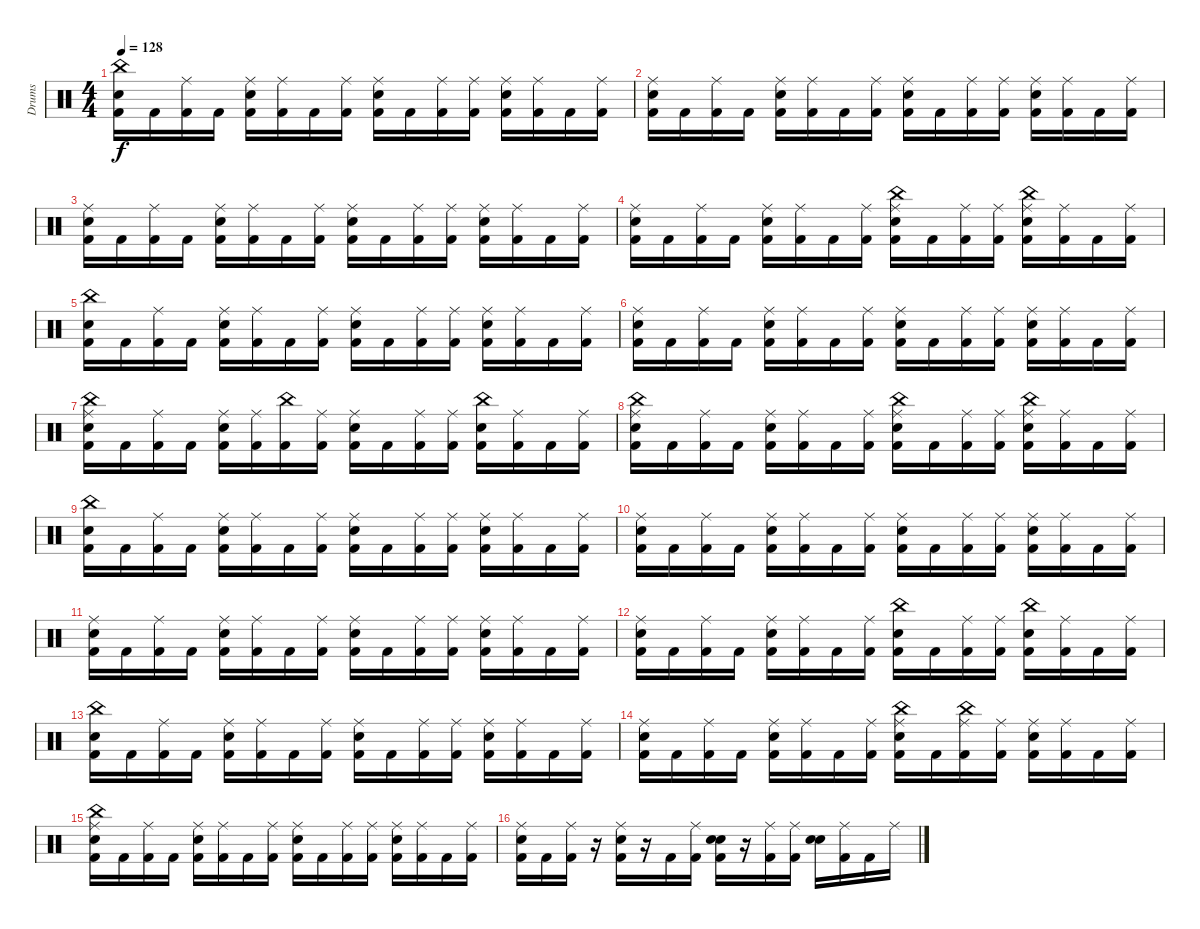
\track ("Drums" "Drums") {instrument percussion}
\staff {score}
\articulation defaults
\ts (4 4)
\tempo 128
\clef neutral
\ks c
("China (hit)" "Snare (hit) 2" "Kick (hit) 2").16{dy f} "Kick (hit) 2".16 ("Ride (middle)" "Kick (hit) 2").16 "Kick (hit) 2".16 ("Snare (hit) 2" "Ride (middle)" "Kick (hit) 2").16 ("Ride (middle)" "Kick (hit) 2").16 "Kick (hit) 2".16 ("Ride (middle)" "Kick (hit) 2").16 ("Snare (hit) 2" "Ride (middle)" "Kick (hit) 2").16 "Kick (hit) 2".16 ("Ride (middle)" "Kick (hit) 2").16 ("Ride (middle)" "Kick (hit) 2").16 ("Snare (hit) 2" "Ride (middle)" "Kick (hit) 2").16 ("Ride (middle)" "Kick (hit) 2").16 "Kick (hit) 2".16 ("Ride (middle)" "Kick (hit) 2").16 |
("Snare (hit) 2" "Ride (middle)" "Kick (hit) 2").16 "Kick (hit) 2".16 ("Ride (middle)" "Kick (hit) 2").16 "Kick (hit) 2".16 ("Snare (hit) 2" "Ride (middle)" "Kick (hit) 2").16 ("Ride (middle)" "Kick (hit) 2").16 "Kick (hit) 2".16 ("Ride (middle)" "Kick (hit) 2").16 ("Snare (hit) 2" "Ride (middle)" "Kick (hit) 2").16 "Kick (hit) 2".16 ("Ride (middle)" "Kick (hit) 2").16 ("Ride (middle)" "Kick (hit) 2").16 ("Snare (hit) 2" "Ride (middle)" "Kick (hit) 2").16 ("Ride (middle)" "Kick (hit) 2").16 "Kick (hit) 2".16 ("Ride (middle)" "Kick (hit) 2").16 |
("Snare (hit) 2" "Ride (middle)" "Kick (hit) 2").16 "Kick (hit) 2".16 ("Ride (middle)" "Kick (hit) 2").16 "Kick (hit) 2".16 ("Snare (hit) 2" "Ride (middle)" "Kick (hit) 2").16 ("Ride (middle)" "Kick (hit) 2").16 "Kick (hit) 2".16 ("Ride (middle)" "Kick (hit) 2").16 ("Snare (hit) 2" "Ride (middle)" "Kick (hit) 2").16 "Kick (hit) 2".16 ("Ride (middle)" "Kick (hit) 2").16 ("Ride (middle)" "Kick (hit) 2").16 ("Snare (hit) 2" "Ride (middle)" "Kick (hit) 2").16 ("Ride (middle)" "Kick (hit) 2").16 "Kick (hit) 2".16 ("Ride (middle)" "Kick (hit) 2").16 |
("Snare (hit) 2" "Ride (middle)" "Kick (hit) 2").16 "Kick (hit) 2".16 ("Ride (middle)" "Kick (hit) 2").16 "Kick (hit) 2".16 ("Snare (hit) 2" "Ride (middle)" "Kick (hit) 2").16 ("Ride (middle)" "Kick (hit) 2").16 "Kick (hit) 2".16 ("Ride (middle)" "Kick (hit) 2").16 ("China (hit)" "Snare (hit) 2" "Ride (middle)" "Kick (hit) 2").16 "Kick (hit) 2".16 ("Ride (middle)" "Kick (hit) 2").16 ("Ride (middle)" "Kick (hit) 2").16 ("China (hit)" "Snare (hit) 2" "Ride (middle)" "Kick (hit) 2").16 ("Ride (middle)" "Kick (hit) 2").16 "Kick (hit) 2".16 ("Ride (middle)" "Kick (hit) 2").16 |
("China (hit)" "Snare (hit) 2" "Kick (hit) 2").16 "Kick (hit) 2".16 ("Ride (middle)" "Kick (hit) 2").16 "Kick (hit) 2".16 ("Snare (hit) 2" "Ride (middle)" "Kick (hit) 2").16 ("Ride (middle)" "Kick (hit) 2").16 "Kick (hit) 2".16 ("Ride (middle)" "Kick (hit) 2").16 ("Snare (hit) 2" "Ride (middle)" "Kick (hit) 2").16 "Kick (hit) 2".16 ("Ride (middle)" "Kick (hit) 2").16 ("Ride (middle)" "Kick (hit) 2").16 ("Snare (hit) 2" "Ride (middle)" "Kick (hit) 2").16 ("Ride (middle)" "Kick (hit) 2").16 "Kick (hit) 2".16 ("Ride (middle)" "Kick (hit) 2").16 |
("Snare (hit) 2" "Ride (middle)" "Kick (hit) 2").16 "Kick (hit) 2".16 ("Ride (middle)" "Kick (hit) 2").16 "Kick (hit) 2".16 ("Snare (hit) 2" "Ride (middle)" "Kick (hit) 2").16 ("Ride (middle)" "Kick (hit) 2").16 "Kick (hit) 2".16 ("Ride (middle)" "Kick (hit) 2").16 ("Snare (hit) 2" "Ride (middle)" "Kick (hit) 2").16 "Kick (hit) 2".16 ("Ride (middle)" "Kick (hit) 2").16 ("Ride (middle)" "Kick (hit) 2").16 ("Snare (hit) 2" "Ride (middle)" "Kick (hit) 2").16 ("Ride (middle)" "Kick (hit) 2").16 "Kick (hit) 2".16 ("Ride (middle)" "Kick (hit) 2").16 |
("China (hit)" "Snare (hit) 2" "Ride (middle)" "Kick (hit) 2").16 "Kick (hit) 2".16 ("Ride (middle)" "Kick (hit) 2").16 "Kick (hit) 2".16 ("Snare (hit) 2" "Ride (middle)" "Kick (hit) 2").16 ("Ride (middle)" "Kick (hit) 2").16 ("China (hit)" "Kick (hit) 2").16 ("Ride (middle)" "Kick (hit) 2").16 ("Snare (hit) 2" "Ride (middle)" "Kick (hit) 2").16 "Kick (hit) 2".16 ("Ride (middle)" "Kick (hit) 2").16 ("Ride (middle)" "Kick (hit) 2").16 ("China (hit)" "Snare (hit) 2" "Kick (hit) 2").16 ("Ride (middle)" "Kick (hit) 2").16 "Kick (hit) 2".16 ("Ride (middle)" "Kick (hit) 2").16 |
("China (hit)" "Snare (hit) 2" "Ride (middle)" "Kick (hit) 2").16 "Kick (hit) 2".16 ("Ride (middle)" "Kick (hit) 2").16 "Kick (hit) 2".16 ("Snare (hit) 2" "Ride (middle)" "Kick (hit) 2").16 ("Ride (middle)" "Kick (hit) 2").16 "Kick (hit) 2".16 ("Ride (middle)" "Kick (hit) 2").16 ("China (hit)" "Snare (hit) 2" "Ride (middle)" "Kick (hit) 2").16 "Kick (hit) 2".16 ("Ride (middle)" "Kick (hit) 2").16 ("Ride (middle)" "Kick (hit) 2").16 ("China (hit)" "Snare (hit) 2" "Ride (middle)" "Kick (hit) 2").16 ("Ride (middle)" "Kick (hit) 2").16 "Kick (hit) 2".16 ("Ride (middle)" "Kick (hit) 2").16 |
("China (hit)" "Snare (hit) 2" "Kick (hit) 2").16 "Kick (hit) 2".16 ("Ride (middle)" "Kick (hit) 2").16 "Kick (hit) 2".16 ("Snare (hit) 2" "Ride (middle)" "Kick (hit) 2").16 ("Ride (middle)" "Kick (hit) 2").16 "Kick (hit) 2".16 ("Ride (middle)" "Kick (hit) 2").16 ("Snare (hit) 2" "Ride (middle)" "Kick (hit) 2").16 "Kick (hit) 2".16 ("Ride (middle)" "Kick (hit) 2").16 ("Ride (middle)" "Kick (hit) 2").16 ("Snare (hit) 2" "Ride (middle)" "Kick (hit) 2").16 ("Ride (middle)" "Kick (hit) 2").16 "Kick (hit) 2".16 ("Ride (middle)" "Kick (hit) 2").16 |
("Snare (hit) 2" "Ride (middle)" "Kick (hit) 2").16 "Kick (hit) 2".16 ("Ride (middle)" "Kick (hit) 2").16 "Kick (hit) 2".16 ("Snare (hit) 2" "Ride (middle)" "Kick (hit) 2").16 ("Ride (middle)" "Kick (hit) 2").16 "Kick (hit) 2".16 ("Ride (middle)" "Kick (hit) 2").16 ("Snare (hit) 2" "Ride (middle)" "Kick (hit) 2").16 "Kick (hit) 2".16 ("Ride (middle)" "Kick (hit) 2").16 ("Ride (middle)" "Kick (hit) 2").16 ("Snare (hit) 2" "Ride (middle)" "Kick (hit) 2").16 ("Ride (middle)" "Kick (hit) 2").16 "Kick (hit) 2".16 ("Ride (middle)" "Kick (hit) 2").16 |
("Snare (hit) 2" "Ride (middle)" "Kick (hit) 2").16 "Kick (hit) 2".16 ("Ride (middle)" "Kick (hit) 2").16 "Kick (hit) 2".16 ("Snare (hit) 2" "Ride (middle)" "Kick (hit) 2").16 ("Ride (middle)" "Kick (hit) 2").16 "Kick (hit) 2".16 ("Ride (middle)" "Kick (hit) 2").16 ("Snare (hit) 2" "Ride (middle)" "Kick (hit) 2").16 "Kick (hit) 2".16 ("Ride (middle)" "Kick (hit) 2").16 ("Ride (middle)" "Kick (hit) 2").16 ("Snare (hit) 2" "Ride (middle)" "Kick (hit) 2").16 ("Ride (middle)" "Kick (hit) 2").16 "Kick (hit) 2".16 ("Ride (middle)" "Kick (hit) 2").16 |
("Snare (hit) 2" "Ride (middle)" "Kick (hit) 2").16 "Kick (hit) 2".16 ("Ride (middle)" "Kick (hit) 2").16 "Kick (hit) 2".16 ("Snare (hit) 2" "Ride (middle)" "Kick (hit) 2").16 ("Ride (middle)" "Kick (hit) 2").16 "Kick (hit) 2".16 ("Ride (middle)" "Kick (hit) 2").16 ("China (hit)" "Snare (hit) 2" "Kick (hit) 2").16 "Kick (hit) 2".16 ("Ride (middle)" "Kick (hit) 2").16 ("Ride (middle)" "Kick (hit) 2").16 ("China (hit)" "Snare (hit) 2" "Kick (hit) 2").16 ("Ride (middle)" "Kick (hit) 2").16 "Kick (hit) 2".16 ("Ride (middle)" "Kick (hit) 2").16 |
("China (hit)" "Snare (hit) 2" "Kick (hit) 2").16 "Kick (hit) 2".16 ("Ride (middle)" "Kick (hit) 2").16 "Kick (hit) 2".16 ("Snare (hit) 2" "Ride (middle)" "Kick (hit) 2").16 ("Ride (middle)" "Kick (hit) 2").16 "Kick (hit) 2".16 ("Ride (middle)" "Kick (hit) 2").16 ("Snare (hit) 2" "Ride (middle)" "Kick (hit) 2").16 "Kick (hit) 2".16 ("Ride (middle)" "Kick (hit) 2").16 ("Ride (middle)" "Kick (hit) 2").16 ("Snare (hit) 2" "Ride (middle)" "Kick (hit) 2").16 ("Ride (middle)" "Kick (hit) 2").16 "Kick (hit) 2".16 ("Ride (middle)" "Kick (hit) 2").16 |
("Snare (hit) 2" "Ride (middle)" "Kick (hit) 2").16 "Kick (hit) 2".16 ("Ride (middle)" "Kick (hit) 2").16 "Kick (hit) 2".16 ("Snare (hit) 2" "Ride (middle)" "Kick (hit) 2").16 ("Ride (middle)" "Kick (hit) 2").16 "Kick (hit) 2".16 ("Ride (middle)" "Kick (hit) 2").16 ("China (hit)" "Snare (hit) 2" "Ride (middle)" "Kick (hit) 2").16 "Kick (hit) 2".16 ("China (hit)" "Ride (middle)" "Kick (hit) 2").16 ("Ride (middle)" "Kick (hit) 2").16 ("Snare (hit) 2" "Ride (middle)" "Kick (hit) 2").16 ("Ride (middle)" "Kick (hit) 2").16 "Kick (hit) 2".16 ("Ride (middle)" "Kick (hit) 2").16 |
("China (hit)" "Snare (hit) 2" "Ride (middle)" "Kick (hit) 2").16 "Kick (hit) 2".16 ("Ride (middle)" "Kick (hit) 2").16 "Kick (hit) 2".16 ("Snare (hit) 2" "Ride (middle)" "Kick (hit) 2").16 ("Ride (middle)" "Kick (hit) 2").16 "Kick (hit) 2".16 ("Ride (middle)" "Kick (hit) 2").16 ("Snare (hit) 2" "Ride (middle)" "Kick (hit) 2").16 "Kick (hit) 2".16 ("Ride (middle)" "Kick (hit) 2").16 ("Ride (middle)" "Kick (hit) 2").16 ("Snare (hit) 2" "Ride (middle)" "Kick (hit) 2").16 ("Ride (middle)" "Kick (hit) 2").16 "Kick (hit) 2".16 ("Ride (middle)" "Kick (hit) 2").16 |
("Snare (hit) 2" "Ride (middle)" "Kick (hit) 2").16 "Kick (hit) 2".16 ("Ride (middle)" "Kick (hit) 2").16 r.16 ("Snare (hit) 2" "Ride (middle)" "Kick (hit) 2").16 r.16 "Kick (hit) 2".16 ("Ride (middle)" "Kick (hit) 2").16 ("Snare (hit) 2" "Snare (hit) 2" "Kick (hit) 2").16 r.16 ("Ride (middle)" "Kick (hit) 2").16 ("Ride (middle)" "Kick (hit) 2").16 ("Snare (hit) 2" "Snare (hit) 2").16 ("Ride (middle)" "Kick (hit) 2").16 "Kick (hit) 2".16 "Ride (middle)".16
